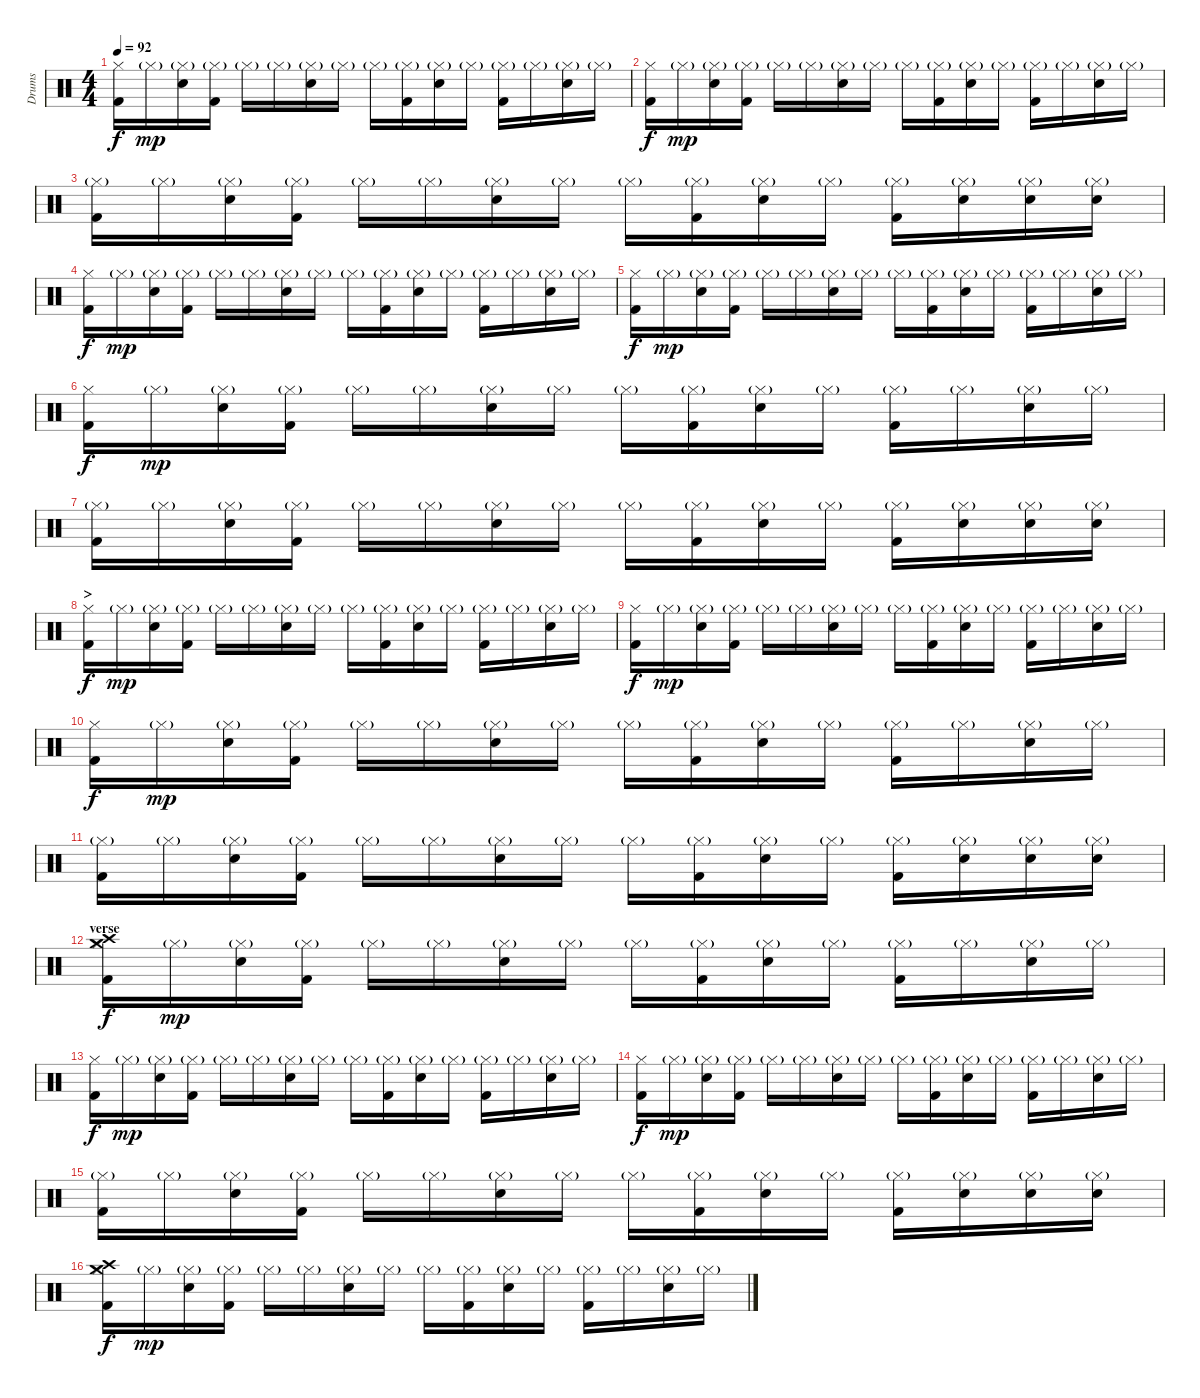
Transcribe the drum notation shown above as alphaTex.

\track ("Drums" "Drums") {instrument percussion}
\staff {score}
\articulation defaults
\ts (4 4)
\tempo 92
\clef neutral
\ks c
("Hi-Hat (closed)" "Kick (hit) 2").16{dy f} "Hi-Hat (closed)"{g}.16{dy mp} ("Hi-Hat (closed)"{g} "Snare (hit) 2").16 ("Hi-Hat (closed)"{g} "Kick (hit) 2").16 "Hi-Hat (closed)"{g}.16 "Hi-Hat (closed)"{g}.16 ("Hi-Hat (closed)"{g} "Snare (hit) 2").16 "Hi-Hat (closed)"{g}.16 "Hi-Hat (closed)"{g}.16 ("Hi-Hat (closed)"{g} "Kick (hit) 2").16 ("Hi-Hat (closed)"{g} "Snare (hit) 2").16 "Hi-Hat (closed)"{g}.16 ("Hi-Hat (closed)"{g} "Kick (hit) 2").16 "Hi-Hat (closed)"{g}.16 ("Hi-Hat (closed)"{g} "Snare (hit) 2").16 "Hi-Hat (closed)"{g}.16 |
("Hi-Hat (closed)" "Kick (hit) 2").16{dy f} "Hi-Hat (closed)"{g}.16{dy mp} ("Hi-Hat (closed)"{g} "Snare (hit) 2").16 ("Hi-Hat (closed)"{g} "Kick (hit) 2").16 "Hi-Hat (closed)"{g}.16 "Hi-Hat (closed)"{g}.16 ("Hi-Hat (closed)"{g} "Snare (hit) 2").16 "Hi-Hat (closed)"{g}.16 "Hi-Hat (closed)"{g}.16 ("Hi-Hat (closed)"{g} "Kick (hit) 2").16 ("Hi-Hat (closed)"{g} "Snare (hit) 2").16 "Hi-Hat (closed)"{g}.16 ("Hi-Hat (closed)"{g} "Kick (hit) 2").16 "Hi-Hat (closed)"{g}.16 ("Hi-Hat (closed)"{g} "Snare (hit) 2").16 "Hi-Hat (closed)"{g}.16 |
("Hi-Hat (closed)"{g} "Kick (hit) 2").16 "Hi-Hat (closed)"{g}.16 ("Hi-Hat (closed)"{g} "Snare (hit) 2").16 ("Hi-Hat (closed)"{g} "Kick (hit) 2").16 "Hi-Hat (closed)"{g}.16 "Hi-Hat (closed)"{g}.16 ("Hi-Hat (closed)"{g} "Snare (hit) 2").16 "Hi-Hat (closed)"{g}.16 "Hi-Hat (closed)"{g}.16 ("Hi-Hat (closed)"{g} "Kick (hit) 2").16 ("Hi-Hat (closed)"{g} "Snare (hit) 2").16 "Hi-Hat (closed)"{g}.16 ("Hi-Hat (closed)"{g} "Kick (hit) 2").16 ("Hi-Hat (closed)"{g} "Snare (hit) 2").16 ("Hi-Hat (closed)"{g} "Snare (hit) 2").16 ("Hi-Hat (closed)"{g} "Snare (hit) 2").16 |
("Hi-Hat (closed)" "Kick (hit) 2").16{dy f} "Hi-Hat (closed)"{g}.16{dy mp} ("Hi-Hat (closed)"{g} "Snare (hit) 2").16 ("Hi-Hat (closed)"{g} "Kick (hit) 2").16 "Hi-Hat (closed)"{g}.16 "Hi-Hat (closed)"{g}.16 ("Hi-Hat (closed)"{g} "Snare (hit) 2").16 "Hi-Hat (closed)"{g}.16 "Hi-Hat (closed)"{g}.16 ("Hi-Hat (closed)"{g} "Kick (hit) 2").16 ("Hi-Hat (closed)"{g} "Snare (hit) 2").16 "Hi-Hat (closed)"{g}.16 ("Hi-Hat (closed)"{g} "Kick (hit) 2").16 "Hi-Hat (closed)"{g}.16 ("Hi-Hat (closed)"{g} "Snare (hit) 2").16 "Hi-Hat (closed)"{g}.16 |
("Hi-Hat (closed)" "Kick (hit) 2").16{dy f} "Hi-Hat (closed)"{g}.16{dy mp} ("Hi-Hat (closed)"{g} "Snare (hit) 2").16 ("Hi-Hat (closed)"{g} "Kick (hit) 2").16 "Hi-Hat (closed)"{g}.16 "Hi-Hat (closed)"{g}.16 ("Hi-Hat (closed)"{g} "Snare (hit) 2").16 "Hi-Hat (closed)"{g}.16 "Hi-Hat (closed)"{g}.16 ("Hi-Hat (closed)"{g} "Kick (hit) 2").16 ("Hi-Hat (closed)"{g} "Snare (hit) 2").16 "Hi-Hat (closed)"{g}.16 ("Hi-Hat (closed)"{g} "Kick (hit) 2").16 "Hi-Hat (closed)"{g}.16 ("Hi-Hat (closed)"{g} "Snare (hit) 2").16 "Hi-Hat (closed)"{g}.16 |
("Hi-Hat (closed)" "Kick (hit) 2").16{dy f} "Hi-Hat (closed)"{g}.16{dy mp} ("Hi-Hat (closed)"{g} "Snare (hit) 2").16 ("Hi-Hat (closed)"{g} "Kick (hit) 2").16 "Hi-Hat (closed)"{g}.16 "Hi-Hat (closed)"{g}.16 ("Hi-Hat (closed)"{g} "Snare (hit) 2").16 "Hi-Hat (closed)"{g}.16 "Hi-Hat (closed)"{g}.16 ("Hi-Hat (closed)"{g} "Kick (hit) 2").16 ("Hi-Hat (closed)"{g} "Snare (hit) 2").16 "Hi-Hat (closed)"{g}.16 ("Hi-Hat (closed)"{g} "Kick (hit) 2").16 "Hi-Hat (closed)"{g}.16 ("Hi-Hat (closed)"{g} "Snare (hit) 2").16 "Hi-Hat (closed)"{g}.16 |
("Hi-Hat (closed)"{g} "Kick (hit) 2").16 "Hi-Hat (closed)"{g}.16 ("Hi-Hat (closed)"{g} "Snare (hit) 2").16 ("Hi-Hat (closed)"{g} "Kick (hit) 2").16 "Hi-Hat (closed)"{g}.16 "Hi-Hat (closed)"{g}.16 ("Hi-Hat (closed)"{g} "Snare (hit) 2").16 "Hi-Hat (closed)"{g}.16 "Hi-Hat (closed)"{g}.16 ("Hi-Hat (closed)"{g} "Kick (hit) 2").16 ("Hi-Hat (closed)"{g} "Snare (hit) 2").16 "Hi-Hat (closed)"{g}.16 ("Hi-Hat (closed)"{g} "Kick (hit) 2").16 ("Hi-Hat (closed)"{g} "Snare (hit) 2").16 ("Hi-Hat (closed)"{g} "Snare (hit) 2").16 ("Hi-Hat (closed)"{g} "Snare (hit) 2").16 |
\section ("" ">")
("Hi-Hat (closed)" "Kick (hit) 2").16{dy f} "Hi-Hat (closed)"{g}.16{dy mp} ("Hi-Hat (closed)"{g} "Snare (hit) 2").16 ("Hi-Hat (closed)"{g} "Kick (hit) 2").16 "Hi-Hat (closed)"{g}.16 "Hi-Hat (closed)"{g}.16 ("Hi-Hat (closed)"{g} "Snare (hit) 2").16 "Hi-Hat (closed)"{g}.16 "Hi-Hat (closed)"{g}.16 ("Hi-Hat (closed)"{g} "Kick (hit) 2").16 ("Hi-Hat (closed)"{g} "Snare (hit) 2").16 "Hi-Hat (closed)"{g}.16 ("Hi-Hat (closed)"{g} "Kick (hit) 2").16 "Hi-Hat (closed)"{g}.16 ("Hi-Hat (closed)"{g} "Snare (hit) 2").16 "Hi-Hat (closed)"{g}.16 |
("Hi-Hat (closed)" "Kick (hit) 2").16{dy f} "Hi-Hat (closed)"{g}.16{dy mp} ("Hi-Hat (closed)"{g} "Snare (hit) 2").16 ("Hi-Hat (closed)"{g} "Kick (hit) 2").16 "Hi-Hat (closed)"{g}.16 "Hi-Hat (closed)"{g}.16 ("Hi-Hat (closed)"{g} "Snare (hit) 2").16 "Hi-Hat (closed)"{g}.16 "Hi-Hat (closed)"{g}.16 ("Hi-Hat (closed)"{g} "Kick (hit) 2").16 ("Hi-Hat (closed)"{g} "Snare (hit) 2").16 "Hi-Hat (closed)"{g}.16 ("Hi-Hat (closed)"{g} "Kick (hit) 2").16 "Hi-Hat (closed)"{g}.16 ("Hi-Hat (closed)"{g} "Snare (hit) 2").16 "Hi-Hat (closed)"{g}.16 |
("Hi-Hat (closed)" "Kick (hit) 2").16{dy f} "Hi-Hat (closed)"{g}.16{dy mp} ("Hi-Hat (closed)"{g} "Snare (hit) 2").16 ("Hi-Hat (closed)"{g} "Kick (hit) 2").16 "Hi-Hat (closed)"{g}.16 "Hi-Hat (closed)"{g}.16 ("Hi-Hat (closed)"{g} "Snare (hit) 2").16 "Hi-Hat (closed)"{g}.16 "Hi-Hat (closed)"{g}.16 ("Hi-Hat (closed)"{g} "Kick (hit) 2").16 ("Hi-Hat (closed)"{g} "Snare (hit) 2").16 "Hi-Hat (closed)"{g}.16 ("Hi-Hat (closed)"{g} "Kick (hit) 2").16 "Hi-Hat (closed)"{g}.16 ("Hi-Hat (closed)"{g} "Snare (hit) 2").16 "Hi-Hat (closed)"{g}.16 |
("Hi-Hat (closed)"{g} "Kick (hit) 2").16 "Hi-Hat (closed)"{g}.16 ("Hi-Hat (closed)"{g} "Snare (hit) 2").16 ("Hi-Hat (closed)"{g} "Kick (hit) 2").16 "Hi-Hat (closed)"{g}.16 "Hi-Hat (closed)"{g}.16 ("Hi-Hat (closed)"{g} "Snare (hit) 2").16 "Hi-Hat (closed)"{g}.16 "Hi-Hat (closed)"{g}.16 ("Hi-Hat (closed)"{g} "Kick (hit) 2").16 ("Hi-Hat (closed)"{g} "Snare (hit) 2").16 "Hi-Hat (closed)"{g}.16 ("Hi-Hat (closed)"{g} "Kick (hit) 2").16 ("Hi-Hat (closed)"{g} "Snare (hit) 2").16 ("Hi-Hat (closed)"{g} "Snare (hit) 2").16 ("Hi-Hat (closed)"{g} "Snare (hit) 2").16 |
\section ("" "verse")
("Hi-Hat (closed)" "Kick (hit) 2" "Crash medium (hit)" "Crash high (hit)").16{dy f} "Hi-Hat (closed)"{g}.16{dy mp} ("Hi-Hat (closed)"{g} "Snare (hit) 2").16 ("Hi-Hat (closed)"{g} "Kick (hit) 2").16 "Hi-Hat (closed)"{g}.16 "Hi-Hat (closed)"{g}.16 ("Hi-Hat (closed)"{g} "Snare (hit) 2").16 "Hi-Hat (closed)"{g}.16 "Hi-Hat (closed)"{g}.16 ("Hi-Hat (closed)"{g} "Kick (hit) 2").16 ("Hi-Hat (closed)"{g} "Snare (hit) 2").16 "Hi-Hat (closed)"{g}.16 ("Hi-Hat (closed)"{g} "Kick (hit) 2").16 "Hi-Hat (closed)"{g}.16 ("Hi-Hat (closed)"{g} "Snare (hit) 2").16 "Hi-Hat (closed)"{g}.16 |
("Hi-Hat (closed)" "Kick (hit) 2").16{dy f} "Hi-Hat (closed)"{g}.16{dy mp} ("Hi-Hat (closed)"{g} "Snare (hit) 2").16 ("Hi-Hat (closed)"{g} "Kick (hit) 2").16 "Hi-Hat (closed)"{g}.16 "Hi-Hat (closed)"{g}.16 ("Hi-Hat (closed)"{g} "Snare (hit) 2").16 "Hi-Hat (closed)"{g}.16 "Hi-Hat (closed)"{g}.16 ("Hi-Hat (closed)"{g} "Kick (hit) 2").16 ("Hi-Hat (closed)"{g} "Snare (hit) 2").16 "Hi-Hat (closed)"{g}.16 ("Hi-Hat (closed)"{g} "Kick (hit) 2").16 "Hi-Hat (closed)"{g}.16 ("Hi-Hat (closed)"{g} "Snare (hit) 2").16 "Hi-Hat (closed)"{g}.16 |
("Hi-Hat (closed)" "Kick (hit) 2").16{dy f} "Hi-Hat (closed)"{g}.16{dy mp} ("Hi-Hat (closed)"{g} "Snare (hit) 2").16 ("Hi-Hat (closed)"{g} "Kick (hit) 2").16 "Hi-Hat (closed)"{g}.16 "Hi-Hat (closed)"{g}.16 ("Hi-Hat (closed)"{g} "Snare (hit) 2").16 "Hi-Hat (closed)"{g}.16 "Hi-Hat (closed)"{g}.16 ("Hi-Hat (closed)"{g} "Kick (hit) 2").16 ("Hi-Hat (closed)"{g} "Snare (hit) 2").16 "Hi-Hat (closed)"{g}.16 ("Hi-Hat (closed)"{g} "Kick (hit) 2").16 "Hi-Hat (closed)"{g}.16 ("Hi-Hat (closed)"{g} "Snare (hit) 2").16 "Hi-Hat (closed)"{g}.16 |
("Hi-Hat (closed)"{g} "Kick (hit) 2").16 "Hi-Hat (closed)"{g}.16 ("Hi-Hat (closed)"{g} "Snare (hit) 2").16 ("Hi-Hat (closed)"{g} "Kick (hit) 2").16 "Hi-Hat (closed)"{g}.16 "Hi-Hat (closed)"{g}.16 ("Hi-Hat (closed)"{g} "Snare (hit) 2").16 "Hi-Hat (closed)"{g}.16 "Hi-Hat (closed)"{g}.16 ("Hi-Hat (closed)"{g} "Kick (hit) 2").16 ("Hi-Hat (closed)"{g} "Snare (hit) 2").16 "Hi-Hat (closed)"{g}.16 ("Hi-Hat (closed)"{g} "Kick (hit) 2").16 ("Hi-Hat (closed)"{g} "Snare (hit) 2").16 ("Hi-Hat (closed)"{g} "Snare (hit) 2").16 ("Hi-Hat (closed)"{g} "Snare (hit) 2").16 |
("Hi-Hat (closed)" "Kick (hit) 2" "Crash medium (hit)" "Crash high (hit)").16{dy f} "Hi-Hat (closed)"{g}.16{dy mp} ("Hi-Hat (closed)"{g} "Snare (hit) 2").16 ("Hi-Hat (closed)"{g} "Kick (hit) 2").16 "Hi-Hat (closed)"{g}.16 "Hi-Hat (closed)"{g}.16 ("Hi-Hat (closed)"{g} "Snare (hit) 2").16 "Hi-Hat (closed)"{g}.16 "Hi-Hat (closed)"{g}.16 ("Hi-Hat (closed)"{g} "Kick (hit) 2").16 ("Hi-Hat (closed)"{g} "Snare (hit) 2").16 "Hi-Hat (closed)"{g}.16 ("Hi-Hat (closed)"{g} "Kick (hit) 2").16 "Hi-Hat (closed)"{g}.16 ("Hi-Hat (closed)"{g} "Snare (hit) 2").16 "Hi-Hat (closed)"{g}.16
